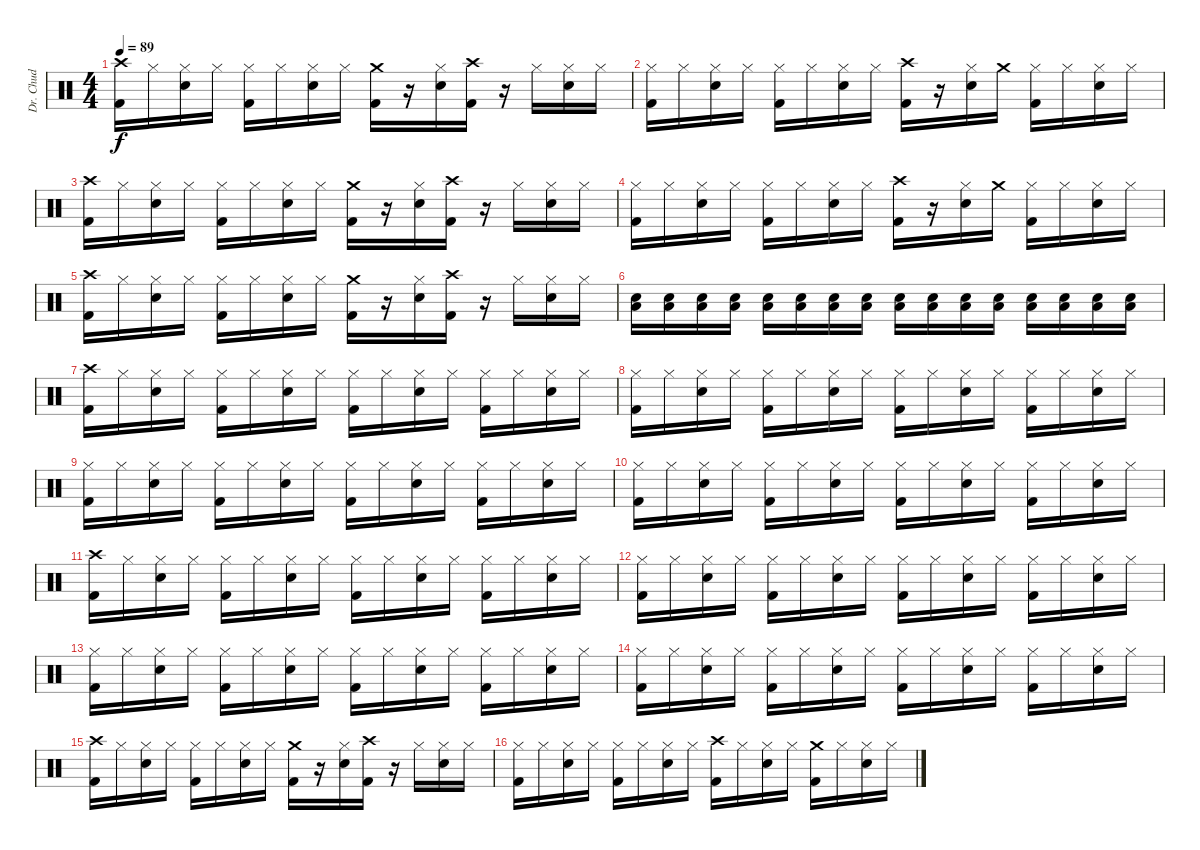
\track ("Dr. Chud" "Dr. Chud") {instrument percussion}
\staff {score}
\articulation defaults
\ts (4 4)
\tempo 89
\clef neutral
\ks c
("Crash high (hit)" "Kick (hit) 2").16{dy f} "Hi-Hat (closed)".16 ("Hi-Hat (closed)" "Snare (hit) 2").16 "Hi-Hat (closed)".16 ("Hi-Hat (closed)" "Kick (hit) 2").16 "Hi-Hat (closed)".16 ("Hi-Hat (closed)" "Snare (hit) 2").16 "Hi-Hat (closed)".16 ("Crash medium (hit)" "Kick (hit) 2").16 r.16 ("Hi-Hat (closed)" "Snare (hit) 2").16 ("Crash high (hit)" "Kick (hit) 2").16 r.16 "Hi-Hat (closed)".16 ("Hi-Hat (closed)" "Snare (hit) 2").16 "Hi-Hat (closed)".16 |
("Hi-Hat (closed)" "Kick (hit) 2").16 "Hi-Hat (closed)".16 ("Hi-Hat (closed)" "Snare (hit) 2").16 "Hi-Hat (closed)".16 ("Hi-Hat (closed)" "Kick (hit) 2").16 "Hi-Hat (closed)".16 ("Hi-Hat (closed)" "Snare (hit) 2").16 "Hi-Hat (closed)".16 ("Crash high (hit)" "Kick (hit) 2").16 r.16 ("Hi-Hat (closed)" "Snare (hit) 2").16 "Crash medium (hit)".16 ("Hi-Hat (closed)" "Kick (hit) 2").16 "Hi-Hat (closed)".16 ("Hi-Hat (closed)" "Snare (hit) 2").16 "Hi-Hat (closed)".16 |
("Crash high (hit)" "Kick (hit) 2").16 "Hi-Hat (closed)".16 ("Hi-Hat (closed)" "Snare (hit) 2").16 "Hi-Hat (closed)".16 ("Hi-Hat (closed)" "Kick (hit) 2").16 "Hi-Hat (closed)".16 ("Hi-Hat (closed)" "Snare (hit) 2").16 "Hi-Hat (closed)".16 ("Crash medium (hit)" "Kick (hit) 2").16 r.16 ("Hi-Hat (closed)" "Snare (hit) 2").16 ("Crash high (hit)" "Kick (hit) 2").16 r.16 "Hi-Hat (closed)".16 ("Hi-Hat (closed)" "Snare (hit) 2").16 "Hi-Hat (closed)".16 |
("Hi-Hat (closed)" "Kick (hit) 2").16 "Hi-Hat (closed)".16 ("Hi-Hat (closed)" "Snare (hit) 2").16 "Hi-Hat (closed)".16 ("Hi-Hat (closed)" "Kick (hit) 2").16 "Hi-Hat (closed)".16 ("Hi-Hat (closed)" "Snare (hit) 2").16 "Hi-Hat (closed)".16 ("Crash high (hit)" "Kick (hit) 2").16 r.16 ("Hi-Hat (closed)" "Snare (hit) 2").16 "Crash medium (hit)".16 ("Hi-Hat (closed)" "Kick (hit) 2").16 "Hi-Hat (closed)".16 ("Hi-Hat (closed)" "Snare (hit) 2").16 "Hi-Hat (closed)".16 |
("Crash high (hit)" "Kick (hit) 2").16 "Hi-Hat (closed)".16 ("Hi-Hat (closed)" "Snare (hit) 2").16 "Hi-Hat (closed)".16 ("Hi-Hat (closed)" "Kick (hit) 2").16 "Hi-Hat (closed)".16 ("Hi-Hat (closed)" "Snare (hit) 2").16 "Hi-Hat (closed)".16 ("Crash medium (hit)" "Kick (hit) 2").16 r.16 ("Hi-Hat (closed)" "Snare (hit) 2").16 ("Crash high (hit)" "Kick (hit) 2").16 r.16 "Hi-Hat (closed)".16 ("Hi-Hat (closed)" "Snare (hit) 2").16 "Hi-Hat (closed)".16 |
("Snare (hit) 2" "Low Tom (hit)").16 ("Snare (hit) 2" "Low Tom (hit)").16 ("Snare (hit) 2" "Low Tom (hit)").16 ("Snare (hit) 2" "Low Tom (hit)").16 ("Snare (hit) 2" "Low Tom (hit)").16 ("Snare (hit) 2" "Low Tom (hit)").16 ("Snare (hit) 2" "Low Tom (hit)").16 ("Snare (hit) 2" "Low Tom (hit)").16 ("Snare (hit) 2" "Low Tom (hit)").16 ("Snare (hit) 2" "Low Tom (hit)").16 ("Snare (hit) 2" "Low Tom (hit)").16 ("Snare (hit) 2" "Low Tom (hit)").16 ("Snare (hit) 2" "Low Tom (hit)").16 ("Snare (hit) 2" "Low Tom (hit)").16 ("Snare (hit) 2" "Low Tom (hit)").16 ("Snare (hit) 2" "Low Tom (hit)").16 |
("Crash high (hit)" "Kick (hit) 2").16 "Hi-Hat (closed)".16 ("Hi-Hat (closed)" "Snare (hit) 2").16 "Hi-Hat (closed)".16 ("Hi-Hat (closed)" "Kick (hit) 2").16 "Hi-Hat (closed)".16 ("Hi-Hat (closed)" "Snare (hit) 2").16 "Hi-Hat (closed)".16 ("Hi-Hat (closed)" "Kick (hit) 2").16 "Hi-Hat (closed)".16 ("Hi-Hat (closed)" "Snare (hit) 2").16 "Hi-Hat (closed)".16 ("Hi-Hat (closed)" "Kick (hit) 2").16 "Hi-Hat (closed)".16 ("Hi-Hat (closed)" "Snare (hit) 2").16 "Hi-Hat (closed)".16 |
("Hi-Hat (closed)" "Kick (hit) 2").16 "Hi-Hat (closed)".16 ("Hi-Hat (closed)" "Snare (hit) 2").16 "Hi-Hat (closed)".16 ("Hi-Hat (closed)" "Kick (hit) 2").16 "Hi-Hat (closed)".16 ("Hi-Hat (closed)" "Snare (hit) 2").16 "Hi-Hat (closed)".16 ("Hi-Hat (closed)" "Kick (hit) 2").16 "Hi-Hat (closed)".16 ("Hi-Hat (closed)" "Snare (hit) 2").16 "Hi-Hat (closed)".16 ("Hi-Hat (closed)" "Kick (hit) 2").16 "Hi-Hat (closed)".16 ("Hi-Hat (closed)" "Snare (hit) 2").16 "Hi-Hat (closed)".16 |
("Hi-Hat (closed)" "Kick (hit) 2").16 "Hi-Hat (closed)".16 ("Hi-Hat (closed)" "Snare (hit) 2").16 "Hi-Hat (closed)".16 ("Hi-Hat (closed)" "Kick (hit) 2").16 "Hi-Hat (closed)".16 ("Hi-Hat (closed)" "Snare (hit) 2").16 "Hi-Hat (closed)".16 ("Hi-Hat (closed)" "Kick (hit) 2").16 "Hi-Hat (closed)".16 ("Hi-Hat (closed)" "Snare (hit) 2").16 "Hi-Hat (closed)".16 ("Hi-Hat (closed)" "Kick (hit) 2").16 "Hi-Hat (closed)".16 ("Hi-Hat (closed)" "Snare (hit) 2").16 "Hi-Hat (closed)".16 |
("Hi-Hat (closed)" "Kick (hit) 2").16 "Hi-Hat (closed)".16 ("Hi-Hat (closed)" "Snare (hit) 2").16 "Hi-Hat (closed)".16 ("Hi-Hat (closed)" "Kick (hit) 2").16 "Hi-Hat (closed)".16 ("Hi-Hat (closed)" "Snare (hit) 2").16 "Hi-Hat (closed)".16 ("Hi-Hat (closed)" "Kick (hit) 2").16 "Hi-Hat (closed)".16 ("Hi-Hat (closed)" "Snare (hit) 2").16 "Hi-Hat (closed)".16 ("Hi-Hat (closed)" "Kick (hit) 2").16 "Hi-Hat (closed)".16 ("Hi-Hat (closed)" "Snare (hit) 2").16 "Hi-Hat (closed)".16 |
("Crash high (hit)" "Kick (hit) 2").16 "Hi-Hat (closed)".16 ("Hi-Hat (closed)" "Snare (hit) 2").16 "Hi-Hat (closed)".16 ("Hi-Hat (closed)" "Kick (hit) 2").16 "Hi-Hat (closed)".16 ("Hi-Hat (closed)" "Snare (hit) 2").16 "Hi-Hat (closed)".16 ("Hi-Hat (closed)" "Kick (hit) 2").16 "Hi-Hat (closed)".16 ("Hi-Hat (closed)" "Snare (hit) 2").16 "Hi-Hat (closed)".16 ("Hi-Hat (closed)" "Kick (hit) 2").16 "Hi-Hat (closed)".16 ("Hi-Hat (closed)" "Snare (hit) 2").16 "Hi-Hat (closed)".16 |
("Hi-Hat (closed)" "Kick (hit) 2").16 "Hi-Hat (closed)".16 ("Hi-Hat (closed)" "Snare (hit) 2").16 "Hi-Hat (closed)".16 ("Hi-Hat (closed)" "Kick (hit) 2").16 "Hi-Hat (closed)".16 ("Hi-Hat (closed)" "Snare (hit) 2").16 "Hi-Hat (closed)".16 ("Hi-Hat (closed)" "Kick (hit) 2").16 "Hi-Hat (closed)".16 ("Hi-Hat (closed)" "Snare (hit) 2").16 "Hi-Hat (closed)".16 ("Hi-Hat (closed)" "Kick (hit) 2").16 "Hi-Hat (closed)".16 ("Hi-Hat (closed)" "Snare (hit) 2").16 "Hi-Hat (closed)".16 |
("Hi-Hat (closed)" "Kick (hit) 2").16 "Hi-Hat (closed)".16 ("Hi-Hat (closed)" "Snare (hit) 2").16 "Hi-Hat (closed)".16 ("Hi-Hat (closed)" "Kick (hit) 2").16 "Hi-Hat (closed)".16 ("Hi-Hat (closed)" "Snare (hit) 2").16 "Hi-Hat (closed)".16 ("Hi-Hat (closed)" "Kick (hit) 2").16 "Hi-Hat (closed)".16 ("Hi-Hat (closed)" "Snare (hit) 2").16 "Hi-Hat (closed)".16 ("Hi-Hat (closed)" "Kick (hit) 2").16 "Hi-Hat (closed)".16 ("Hi-Hat (closed)" "Snare (hit) 2").16 "Hi-Hat (closed)".16 |
("Hi-Hat (closed)" "Kick (hit) 2").16 "Hi-Hat (closed)".16 ("Hi-Hat (closed)" "Snare (hit) 2").16 "Hi-Hat (closed)".16 ("Hi-Hat (closed)" "Kick (hit) 2").16 "Hi-Hat (closed)".16 ("Hi-Hat (closed)" "Snare (hit) 2").16 "Hi-Hat (closed)".16 ("Hi-Hat (closed)" "Kick (hit) 2").16 "Hi-Hat (closed)".16 ("Hi-Hat (closed)" "Snare (hit) 2").16 "Hi-Hat (closed)".16 ("Hi-Hat (closed)" "Kick (hit) 2").16 "Hi-Hat (closed)".16 ("Hi-Hat (closed)" "Snare (hit) 2").16 "Hi-Hat (closed)".16 |
("Crash high (hit)" "Kick (hit) 2").16 "Hi-Hat (closed)".16 ("Hi-Hat (closed)" "Snare (hit) 2").16 "Hi-Hat (closed)".16 ("Hi-Hat (closed)" "Kick (hit) 2").16 "Hi-Hat (closed)".16 ("Hi-Hat (closed)" "Snare (hit) 2").16 "Hi-Hat (closed)".16 ("Crash medium (hit)" "Kick (hit) 2").16 r.16 ("Hi-Hat (closed)" "Snare (hit) 2").16 ("Crash high (hit)" "Kick (hit) 2").16 r.16 "Hi-Hat (closed)".16 ("Hi-Hat (closed)" "Snare (hit) 2").16 "Hi-Hat (closed)".16 |
("Hi-Hat (closed)" "Kick (hit) 2").16 "Hi-Hat (closed)".16 ("Hi-Hat (closed)" "Snare (hit) 2").16 "Hi-Hat (closed)".16 ("Hi-Hat (closed)" "Kick (hit) 2").16 "Hi-Hat (closed)".16 ("Hi-Hat (closed)" "Snare (hit) 2").16 "Hi-Hat (closed)".16 ("Crash high (hit)" "Kick (hit) 2").16 "Hi-Hat (closed)".16 ("Hi-Hat (closed)" "Snare (hit) 2").16 "Hi-Hat (closed)".16 ("Crash medium (hit)" "Kick (hit) 2").16 "Hi-Hat (closed)".16 ("Hi-Hat (closed)" "Snare (hit) 2").16 "Hi-Hat (closed)".16
